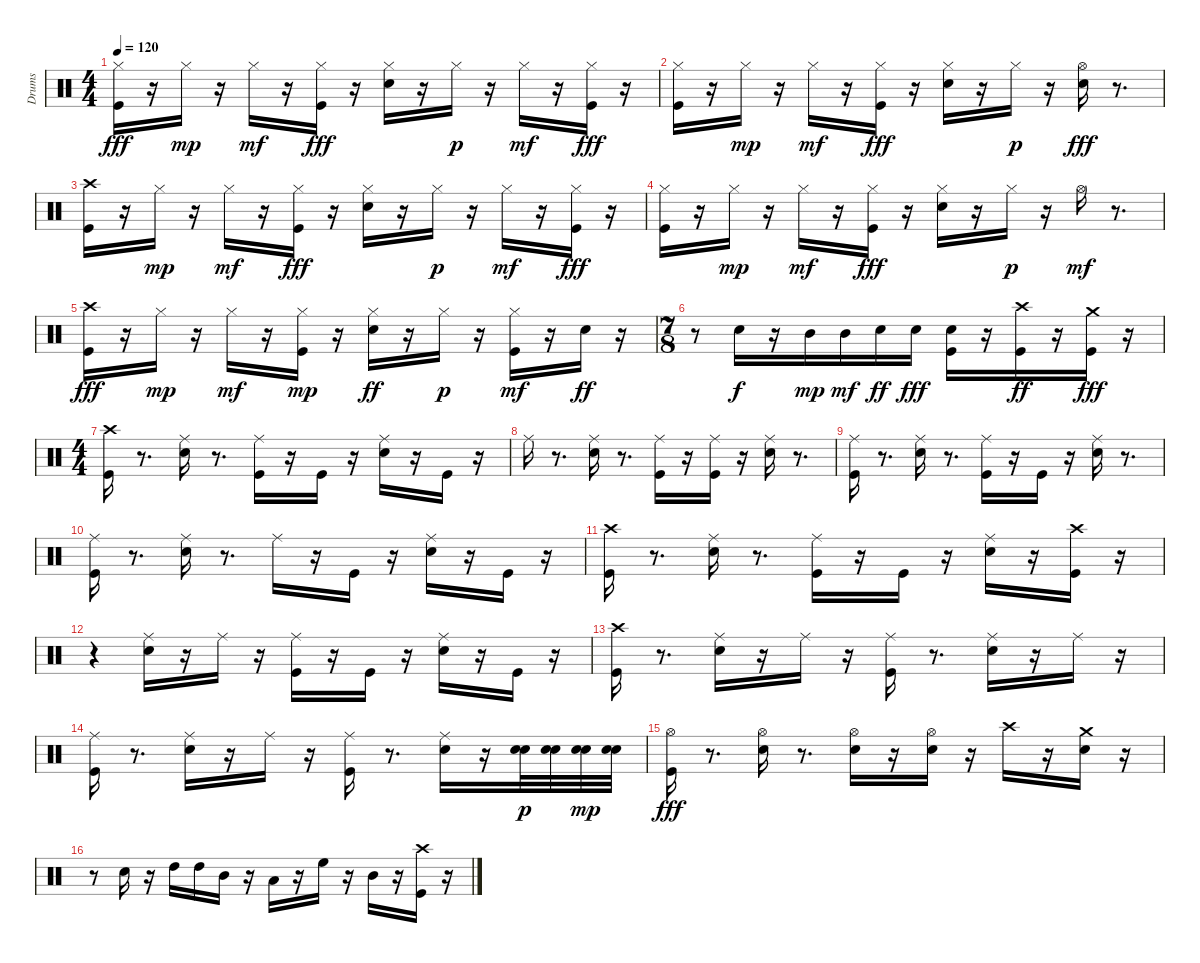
\track ("Drums" "Drums") {instrument percussion}
\staff {score}
\articulation defaults
\ts (4 4)
\tempo 120
\clef neutral
\ks c
("Hi-Hat (closed)" "Kick (hit)").16{dy fff} r.16 "Hi-Hat (closed)".16{dy mp} r.16 "Hi-Hat (closed)".16{dy mf} r.16 ("Hi-Hat (closed)" "Kick (hit)").16{dy fff} r.16 ("Hi-Hat (closed)" "Snare (hit) 2").16 r.16 "Hi-Hat (closed)".16{dy p} r.16 "Hi-Hat (closed)".16{dy mf} r.16 ("Hi-Hat (closed)" "Kick (hit)").16{dy fff} r.16 |
("Hi-Hat (closed)" "Kick (hit)").16 r.16 "Hi-Hat (closed)".16{dy mp} r.16 "Hi-Hat (closed)".16{dy mf} r.16 ("Hi-Hat (closed)" "Kick (hit)").16{dy fff} r.16 ("Hi-Hat (closed)" "Snare (hit) 2").16 r.16 "Hi-Hat (closed)".16{dy p} r.16 ("Snare (hit) 2" "Hi-Hat (open)").16{dy fff} r.8{d} |
("Crash high (hit)" "Kick (hit)").16 r.16 "Hi-Hat (closed)".16{dy mp} r.16 "Hi-Hat (closed)".16{dy mf} r.16 ("Hi-Hat (closed)" "Kick (hit)").16{dy fff} r.16 ("Hi-Hat (closed)" "Snare (hit) 2").16 r.16 "Hi-Hat (closed)".16{dy p} r.16 "Hi-Hat (closed)".16{dy mf} r.16 ("Hi-Hat (closed)" "Kick (hit)").16{dy fff} r.16 |
("Hi-Hat (closed)" "Kick (hit)").16 r.16 "Hi-Hat (closed)".16{dy mp} r.16 "Hi-Hat (closed)".16{dy mf} r.16 ("Hi-Hat (closed)" "Kick (hit)").16{dy fff} r.16 ("Hi-Hat (closed)" "Snare (hit) 2").16 r.16 "Hi-Hat (closed)".16{dy p} r.16 "Hi-Hat (open)".16{dy mf} r.8{d} |
("Kick (hit)" "Crash high (hit)").16{dy fff} r.16 "Hi-Hat (closed)".16{dy mp} r.16 "Hi-Hat (closed)".16{dy mf} r.16 ("Kick (hit)" "Hi-Hat (closed)").16{dy mp} r.16 ("Snare (hit) 2" "Hi-Hat (closed)").16{dy ff} r.16 "Hi-Hat (closed)".16{dy p} r.16 ("Kick (hit)" "Hi-Hat (closed)").16{dy mf volume 14} r.16 "Snare (hit) 2".16{dy ff} r.16 |
\ts (7 8)
r.8 "Snare (hit) 2".16{dy f} r.16 "Mid Tom (hit)".16{dy mp} "Mid Tom (hit)".16{dy mf} "Snare (hit) 2".16{dy ff} "Snare (hit) 2".16{dy fff} ("Snare (hit) 2" "Kick (hit)").16 r.16 ("Crash high (hit)" "Kick (hit)").16{dy ff} r.16 ("Crash medium (hit)" "Kick (hit)").16{dy fff} r.16 |
\ts (4 4)
("Crash high (hit)" "Kick (hit)").16{volume 11} r.8{d} ("Ride (middle)" "Snare (hit) 2").16 r.8{d} ("Ride (middle)" "Kick (hit)").16 r.16 "Kick (hit)".16 r.16 ("Ride (middle)" "Snare (hit) 2").16 r.16 "Kick (hit)".16 r.16 |
"Ride (middle)".16 r.8{d} ("Ride (middle)" "Snare (hit) 2").16 r.8{d} ("Ride (middle)" "Kick (hit)").16 r.16 ("Ride (middle)" "Kick (hit)").16 r.16 ("Ride (middle)" "Snare (hit) 2").16 r.8{d} |
("Ride (middle)" "Kick (hit)").16 r.8{d} ("Ride (middle)" "Snare (hit) 2").16 r.8{d} ("Ride (middle)" "Kick (hit)").16 r.16 "Kick (hit)".16 r.16 ("Ride (middle)" "Snare (hit) 2").16 r.8{d} |
("Ride (middle)" "Kick (hit)").16 r.8{d} ("Ride (middle)" "Snare (hit) 2").16 r.8{d} "Ride (middle)".16 r.16 "Kick (hit)".16 r.16 ("Ride (middle)" "Snare (hit) 2").16 r.16 "Kick (hit)".16 r.16 |
("Kick (hit)" "Crash high (hit)").16 r.8{d} ("Ride (middle)" "Snare (hit) 2").16 r.8{d} ("Ride (middle)" "Kick (hit)").16 r.16 "Kick (hit)".16 r.16 ("Ride (middle)" "Snare (hit) 2").16 r.16 ("Kick (hit)" "Crash high (hit)").16 r.16 |
r.4 ("Snare (hit) 2" "Ride (middle)").16 r.16 "Ride (middle)".16 r.16 ("Kick (hit)" "Ride (middle)").16 r.16 "Kick (hit)".16 r.16 ("Snare (hit) 2" "Ride (middle)").16 r.16 "Kick (hit)".16 r.16 |
("Kick (hit)" "Crash high (hit)").16 r.8{d} ("Snare (hit) 2" "Ride (middle)").16 r.16 "Ride (middle)".16 r.16 ("Kick (hit)" "Ride (middle)").16 r.8{d} ("Snare (hit) 2" "Ride (middle)").16 r.16 "Ride (middle)".16 r.16 |
("Kick (hit)" "Ride (middle)").16 r.8{d} ("Ride (middle)" "Snare (hit) 2").16 r.16 "Ride (middle)".16 r.16 ("Ride (middle)" "Kick (hit)").16 r.8{d} ("Ride (middle)" "Snare (hit) 2").16 r.16 ("Snare (hit) 2" "Snare (hit) 2").32{dy p} ("Snare (hit) 2" "Snare (hit) 2").32 ("Snare (hit) 2" "Snare (hit) 2").32{dy mp} ("Snare (hit) 2" "Snare (hit) 2").32 |
("Hi-Hat (open)" "Kick (hit)").16{dy fff} r.8{d} ("Hi-Hat (open)" "Snare (hit) 2").16 r.8{d} ("Hi-Hat (open)" "Snare (hit) 2").16 r.16 ("Hi-Hat (open)" "Snare (hit) 2").16 r.16 "Crash high (hit)".16 r.16 ("Snare (hit) 2" "Crash medium (hit)").16 r.16 |
r.8 "Snare (hit) 2".16 r.16 "High Tom (hit)".16 "High Tom (hit)".16 "Mid Tom (hit)".16 r.16 "Low Tom (hit)".16 r.16 "High Floor Tom (hit)".16 r.16 "Mid Tom (hit)".16 r.16 ("Crash high (hit)" "Kick (hit)").16 r.16
